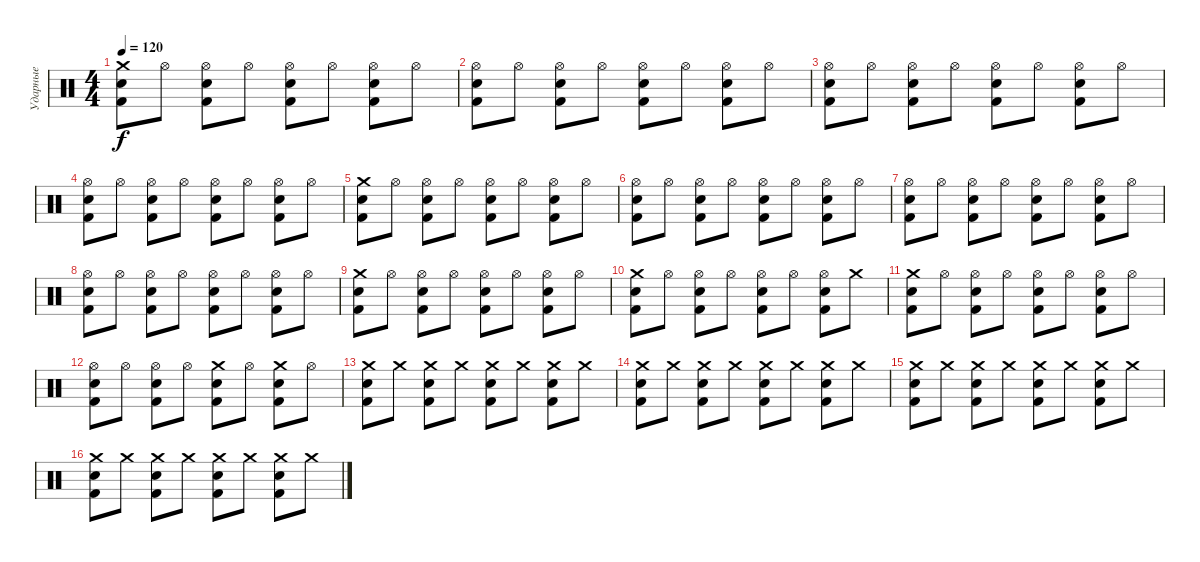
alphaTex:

\track ("Ударные" "Ударные") {instrument percussion}
\staff {score}
\articulation defaults
\ts (4 4)
\tempo 120
\clef neutral
\ks c
("Kick (hit) 2" "Electric Snare (hit)" "Crash medium (hit)").8{dy f} "Hi-Hat (open)".8 ("Kick (hit) 2" "Electric Snare (hit)" "Hi-Hat (open)").8 "Hi-Hat (open)".8 ("Kick (hit) 2" "Electric Snare (hit)" "Hi-Hat (open)").8 "Hi-Hat (open)".8 ("Kick (hit) 2" "Electric Snare (hit)" "Hi-Hat (open)").8 "Hi-Hat (open)".8 |
("Kick (hit) 2" "Electric Snare (hit)" "Hi-Hat (open)").8 "Hi-Hat (open)".8 ("Kick (hit) 2" "Electric Snare (hit)" "Hi-Hat (open)").8 "Hi-Hat (open)".8 ("Kick (hit) 2" "Electric Snare (hit)" "Hi-Hat (open)").8 "Hi-Hat (open)".8 ("Kick (hit) 2" "Electric Snare (hit)" "Hi-Hat (open)").8 "Hi-Hat (open)".8 |
("Kick (hit) 2" "Electric Snare (hit)" "Hi-Hat (open)").8 "Hi-Hat (open)".8 ("Kick (hit) 2" "Electric Snare (hit)" "Hi-Hat (open)").8 "Hi-Hat (open)".8 ("Kick (hit) 2" "Electric Snare (hit)" "Hi-Hat (open)").8 "Hi-Hat (open)".8 ("Kick (hit) 2" "Electric Snare (hit)" "Hi-Hat (open)").8 "Hi-Hat (open)".8 |
("Kick (hit) 2" "Electric Snare (hit)" "Hi-Hat (open)").8 "Hi-Hat (open)".8 ("Kick (hit) 2" "Electric Snare (hit)" "Hi-Hat (open)").8 "Hi-Hat (open)".8 ("Kick (hit) 2" "Electric Snare (hit)" "Hi-Hat (open)").8 "Hi-Hat (open)".8 ("Kick (hit) 2" "Electric Snare (hit)" "Hi-Hat (open)").8 "Hi-Hat (open)".8 |
("Kick (hit) 2" "Electric Snare (hit)" "Crash medium (hit)").8 "Hi-Hat (open)".8 ("Kick (hit) 2" "Electric Snare (hit)" "Hi-Hat (open)").8 "Hi-Hat (open)".8 ("Kick (hit) 2" "Electric Snare (hit)" "Hi-Hat (open)").8 "Hi-Hat (open)".8 ("Kick (hit) 2" "Electric Snare (hit)" "Hi-Hat (open)").8 "Hi-Hat (open)".8 |
("Kick (hit) 2" "Electric Snare (hit)" "Hi-Hat (open)").8 "Hi-Hat (open)".8 ("Kick (hit) 2" "Electric Snare (hit)" "Hi-Hat (open)").8 "Hi-Hat (open)".8 ("Kick (hit) 2" "Electric Snare (hit)" "Hi-Hat (open)").8 "Hi-Hat (open)".8 ("Kick (hit) 2" "Electric Snare (hit)" "Hi-Hat (open)").8 "Hi-Hat (open)".8 |
("Kick (hit) 2" "Electric Snare (hit)" "Hi-Hat (open)").8 "Hi-Hat (open)".8 ("Kick (hit) 2" "Electric Snare (hit)" "Hi-Hat (open)").8 "Hi-Hat (open)".8 ("Kick (hit) 2" "Electric Snare (hit)" "Hi-Hat (open)").8 "Hi-Hat (open)".8 ("Kick (hit) 2" "Electric Snare (hit)" "Hi-Hat (open)").8 "Hi-Hat (open)".8 |
("Kick (hit) 2" "Electric Snare (hit)" "Hi-Hat (open)").8 "Hi-Hat (open)".8 ("Kick (hit) 2" "Electric Snare (hit)" "Hi-Hat (open)").8 "Hi-Hat (open)".8 ("Kick (hit) 2" "Electric Snare (hit)" "Hi-Hat (open)").8 "Hi-Hat (open)".8 ("Kick (hit) 2" "Electric Snare (hit)" "Hi-Hat (open)").8 "Hi-Hat (open)".8 |
("Kick (hit) 2" "Electric Snare (hit)" "Crash medium (hit)").8 "Hi-Hat (open)".8 ("Kick (hit) 2" "Electric Snare (hit)" "Hi-Hat (open)").8 "Hi-Hat (open)".8 ("Kick (hit) 2" "Electric Snare (hit)" "Hi-Hat (open)").8 "Hi-Hat (open)".8 ("Kick (hit) 2" "Electric Snare (hit)" "Hi-Hat (open)").8 "Hi-Hat (open)".8 |
("Kick (hit) 2" "Electric Snare (hit)" "Crash medium (hit)").8 "Hi-Hat (open)".8 ("Kick (hit) 2" "Electric Snare (hit)" "Hi-Hat (open)").8 "Hi-Hat (open)".8 ("Kick (hit) 2" "Electric Snare (hit)" "Hi-Hat (open)").8 "Hi-Hat (open)".8 ("Kick (hit) 2" "Electric Snare (hit)" "Hi-Hat (open)").8 "Crash medium (hit)".8 |
("Kick (hit) 2" "Electric Snare (hit)" "Crash medium (hit)").8 "Hi-Hat (open)".8 ("Kick (hit) 2" "Electric Snare (hit)" "Hi-Hat (open)").8 "Hi-Hat (open)".8 ("Kick (hit) 2" "Electric Snare (hit)" "Hi-Hat (open)").8 "Hi-Hat (open)".8 ("Kick (hit) 2" "Electric Snare (hit)" "Hi-Hat (open)").8 "Hi-Hat (open)".8 |
("Kick (hit) 2" "Electric Snare (hit)" "Hi-Hat (open)").8 "Hi-Hat (open)".8 ("Kick (hit) 2" "Electric Snare (hit)" "Hi-Hat (open)").8 "Hi-Hat (open)".8 ("Kick (hit) 2" "Electric Snare (hit)" "Crash medium (hit)").8 "Hi-Hat (open)".8 ("Kick (hit) 2" "Electric Snare (hit)" "Crash medium (hit)").8 "Hi-Hat (open)".8 |
("Kick (hit) 2" "Electric Snare (hit)" "Crash medium (hit)").8 "Crash medium (hit)".8 ("Kick (hit) 2" "Electric Snare (hit)" "Crash medium (hit)").8 "Crash medium (hit)".8 ("Kick (hit) 2" "Electric Snare (hit)" "Crash medium (hit)").8 "Crash medium (hit)".8 ("Kick (hit) 2" "Electric Snare (hit)" "Crash medium (hit)").8 "Crash medium (hit)".8 |
("Kick (hit) 2" "Electric Snare (hit)" "Crash medium (hit)").8 "Crash medium (hit)".8 ("Kick (hit) 2" "Electric Snare (hit)" "Crash medium (hit)").8 "Crash medium (hit)".8 ("Kick (hit) 2" "Electric Snare (hit)" "Crash medium (hit)").8 "Crash medium (hit)".8 ("Kick (hit) 2" "Electric Snare (hit)" "Crash medium (hit)").8 "Crash medium (hit)".8 |
("Kick (hit) 2" "Electric Snare (hit)" "Crash medium (hit)").8 "Crash medium (hit)".8 ("Kick (hit) 2" "Electric Snare (hit)" "Crash medium (hit)").8 "Crash medium (hit)".8 ("Kick (hit) 2" "Electric Snare (hit)" "Crash medium (hit)").8 "Crash medium (hit)".8 ("Kick (hit) 2" "Electric Snare (hit)" "Crash medium (hit)").8 "Crash medium (hit)".8 |
("Kick (hit) 2" "Electric Snare (hit)" "Crash medium (hit)").8 "Crash medium (hit)".8 ("Kick (hit) 2" "Electric Snare (hit)" "Crash medium (hit)").8 "Crash medium (hit)".8 ("Kick (hit) 2" "Electric Snare (hit)" "Crash medium (hit)").8 "Crash medium (hit)".8 ("Kick (hit) 2" "Electric Snare (hit)" "Crash medium (hit)").8 "Crash medium (hit)".8
